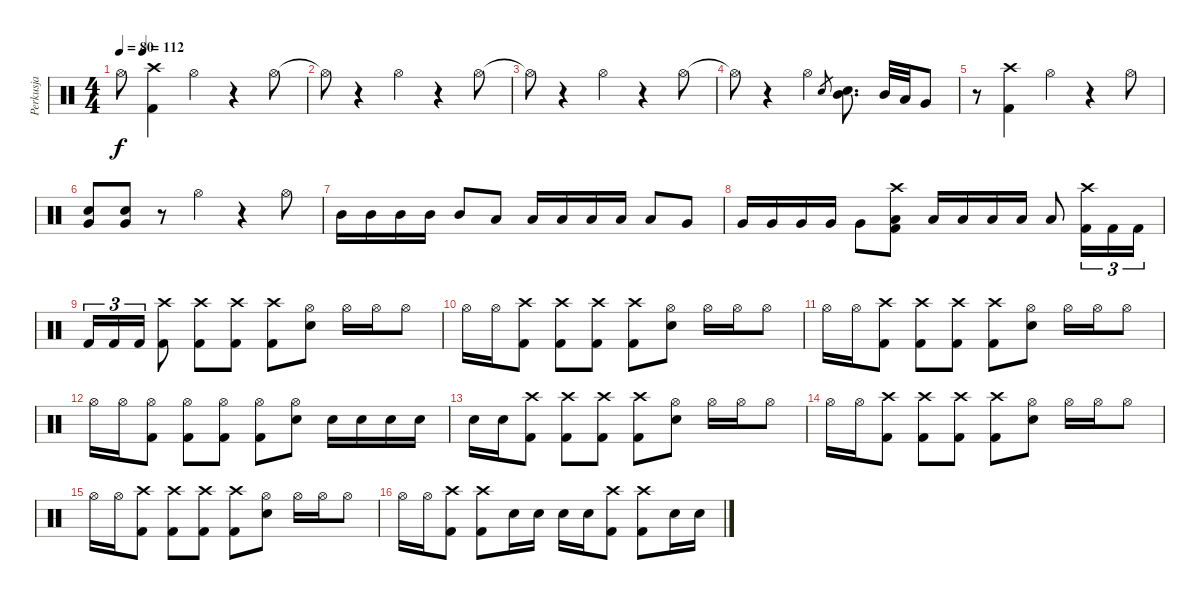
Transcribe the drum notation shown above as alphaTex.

\track ("Perkusja" "Perkusja") {instrument percussion}
\staff {score}
\articulation defaults
\ts (4 4)
\tempo 80
\tempo (112 0.125)
\clef neutral
\ks c "Hi-Hat (open)"{t}.8{dy f}
("Crash high (hit)" "Kick (hit) 2").4 "Hi-Hat (open)".4 r.4 "Hi-Hat (open)".8 |
"Hi-Hat (open)"{t}.8 r.4 "Hi-Hat (open)".4 r.4 "Hi-Hat (open)".8 |
"Hi-Hat (open)"{t}.8 r.4 "Hi-Hat (open)".4 r.4 "Hi-Hat (open)".8 |
"Hi-Hat (open)"{t}.8 r.4 "Hi-Hat (open)".4 "Snare (hit) 2".8{gr} ("Snare (hit) 2" "Mid Tom (hit)").8{d} "Mid Tom (hit)".32 "Low Tom (hit)".32 "Very Low Tom (hit)".8 |
r.8 ("Kick (hit) 2" "Crash high (hit)").4 "Hi-Hat (open)".4 r.4 "Hi-Hat (open)".8 |
("Snare (hit) 2" "Very Low Tom (hit)").8 ("Snare (hit) 2" "Very Low Tom (hit)").8 r.8 "Hi-Hat (open)".4 r.4 "Hi-Hat (open)".8 |
"Mid Tom (hit)".16 "Mid Tom (hit)".16 "Mid Tom (hit)".16 "Mid Tom (hit)".16 "Mid Tom (hit)".8 "Low Tom (hit)".8 "Low Tom (hit)".16 "Low Tom (hit)".16 "Low Tom (hit)".16 "Low Tom (hit)".16 "Low Tom (hit)".8 "Very Low Tom (hit)".8 |
"Very Low Tom (hit)".16 "Very Low Tom (hit)".16 "Very Low Tom (hit)".16 "Very Low Tom (hit)".16 "Very Low Tom (hit)".8 ("Low Floor Tom (hit)" "Crash high (hit)" "Kick (hit) 2").8 "Low Floor Tom (hit)".16 "Low Floor Tom (hit)".16 "Low Floor Tom (hit)".16 "Low Floor Tom (hit)".16 "Low Floor Tom (hit)".8 ("Crash high (hit)" "Kick (hit) 2").16{tu (3 2)} "Kick (hit) 2".16{tu (3 2)} "Kick (hit) 2".16{tu (3 2)} |
"Kick (hit) 2".16{tu (3 2)} "Kick (hit) 2".16{tu (3 2)} "Kick (hit) 2".16{tu (3 2)} ("Crash high (hit)" "Kick (hit) 2").8 ("Crash high (hit)" "Kick (hit) 2").8 ("Kick (hit) 2" "Crash high (hit)").8 ("Crash high (hit)" "Kick (hit) 2").8 ("Snare (hit) 2" "Hi-Hat (open)").8 "Hi-Hat (open)".16 "Hi-Hat (open)".16 "Hi-Hat (open)".8 |
"Hi-Hat (open)".16 "Hi-Hat (open)".16 ("Crash high (hit)" "Kick (hit) 2").8 ("Crash high (hit)" "Kick (hit) 2").8 ("Kick (hit) 2" "Crash high (hit)").8 ("Crash high (hit)" "Kick (hit) 2").8 ("Snare (hit) 2" "Hi-Hat (open)").8 "Hi-Hat (open)".16 "Hi-Hat (open)".16 "Hi-Hat (open)".8 |
"Hi-Hat (open)".16 "Hi-Hat (open)".16 ("Crash high (hit)" "Kick (hit) 2").8 ("Crash high (hit)" "Kick (hit) 2").8 ("Kick (hit) 2" "Crash high (hit)").8 ("Crash high (hit)" "Kick (hit) 2").8 ("Snare (hit) 2" "Hi-Hat (open)").8 "Hi-Hat (open)".16 "Hi-Hat (open)".16 "Hi-Hat (open)".8 |
"Hi-Hat (open)".16 "Hi-Hat (open)".16 ("Hi-Hat (open)" "Kick (hit) 2").8 ("Hi-Hat (open)" "Kick (hit) 2").8 ("Kick (hit) 2" "Hi-Hat (open)").8 ("Hi-Hat (open)" "Kick (hit) 2").8 ("Snare (hit) 2" "Hi-Hat (open)").8 "Snare (hit) 2".16 "Snare (hit) 2".16 "Snare (hit) 2".16 "Snare (hit) 2".16 |
"Snare (hit) 2".16 "Snare (hit) 2".16 ("Crash high (hit)" "Kick (hit) 2").8 ("Crash high (hit)" "Kick (hit) 2").8 ("Kick (hit) 2" "Crash high (hit)").8 ("Crash high (hit)" "Kick (hit) 2").8 ("Snare (hit) 2" "Hi-Hat (open)").8 "Hi-Hat (open)".16 "Hi-Hat (open)".16 "Hi-Hat (open)".8 |
"Hi-Hat (open)".16 "Hi-Hat (open)".16 ("Crash high (hit)" "Kick (hit) 2").8 ("Crash high (hit)" "Kick (hit) 2").8 ("Kick (hit) 2" "Crash high (hit)").8 ("Crash high (hit)" "Kick (hit) 2").8 ("Snare (hit) 2" "Hi-Hat (open)").8 "Hi-Hat (open)".16 "Hi-Hat (open)".16 "Hi-Hat (open)".8 |
"Hi-Hat (open)".16 "Hi-Hat (open)".16 ("Crash high (hit)" "Kick (hit) 2").8 ("Crash high (hit)" "Kick (hit) 2").8 ("Kick (hit) 2" "Crash high (hit)").8 ("Crash high (hit)" "Kick (hit) 2").8 ("Snare (hit) 2" "Hi-Hat (open)").8 "Hi-Hat (open)".16 "Hi-Hat (open)".16 "Hi-Hat (open)".8 |
"Hi-Hat (open)".16 "Hi-Hat (open)".16 ("Kick (hit) 2" "Crash high (hit)").8 ("Kick (hit) 2" "Crash high (hit)").8 "Snare (hit) 2".16 "Snare (hit) 2".16 "Snare (hit) 2".16 "Snare (hit) 2".16 ("Kick (hit) 2" "Crash high (hit)").8 ("Kick (hit) 2" "Crash high (hit)").8 "Snare (hit) 2".16 "Snare (hit) 2".16
